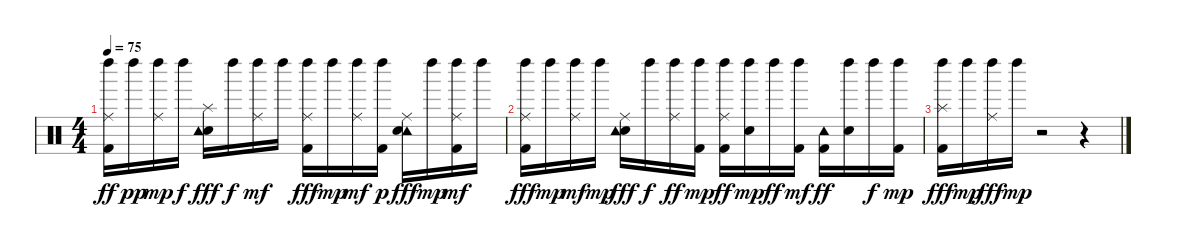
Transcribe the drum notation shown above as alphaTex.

\track "" {instrument percussion}
\staff {score}
\articulation defaults
\ts (4 4)
\tempo 75
\clef neutral
\ks c
("Kick (hit) 2" "Ride (middle)" "Left Maraca (hit)").16{dy ff} "Left Maraca (hit)".16{dy pp} ("Ride (middle)" "Left Maraca (hit)").16{dy mp} "Left Maraca (hit)".16{dy f} ("Electric Snare (hit)" "Splash (hit)" "Tambourine (hit)").16{dy fff} "Left Maraca (hit)".16{dy f} ("Ride (middle)" "Left Maraca (hit)").16{dy mf} "Left Maraca (hit)".16 ("Left Maraca (hit)" "Ride (middle)" "Kick (hit) 2").16{dy fff} "Left Maraca (hit)".16{dy mp} ("Ride (middle)" "Left Maraca (hit)").16{dy mf} ("Left Maraca (hit)" "Kick (hit) 2").16{dy p} ("Tambourine (hit)" "Electric Snare (hit)" "Ride (middle)").16{dy fff} "Left Maraca (hit)".16{dy mp} ("Left Maraca (hit)" "Kick (hit) 2" "Ride (middle)").16{dy mf} "Left Maraca (hit)".16 |
("Ride (middle)" "Left Maraca (hit)" "Kick (hit) 2").16{dy fff} "Left Maraca (hit)".16{dy mp} ("Ride (middle)" "Left Maraca (hit)").16{dy mf} "Left Maraca (hit)".16{dy mp} ("Electric Snare (hit)" "Tambourine (hit)" "Ride (middle)").16{dy fff} "Left Maraca (hit)".16{dy f} ("Left Maraca (hit)" "Ride (middle)").16{dy ff} ("Kick (hit) 2" "Left Maraca (hit)").16{dy mp} ("Kick (hit) 2" "Ride (middle)" "Left Maraca (hit)").16{dy ff} ("Electric Snare (hit)" "Left Maraca (hit)").16{dy mp} "Left Maraca (hit)".16{dy ff} ("Kick (hit) 2" "Left Maraca (hit)").16{dy mf} ("Tambourine (hit)" "Kick (hit) 2").16{dy ff} ("Left Maraca (hit)" "Electric Snare (hit)").16 "Left Maraca (hit)".16{dy f} ("Kick (hit) 2" "Left Maraca (hit)").16{dy mp} |
("Left Maraca (hit)" "Splash (hit)" "Kick (hit) 2").16{dy fff} "Left Maraca (hit)".16{dy mp} ("Left Maraca (hit)" "Ride (middle)").16{dy fff} "Left Maraca (hit)".16{dy mp} r.2 r.4
